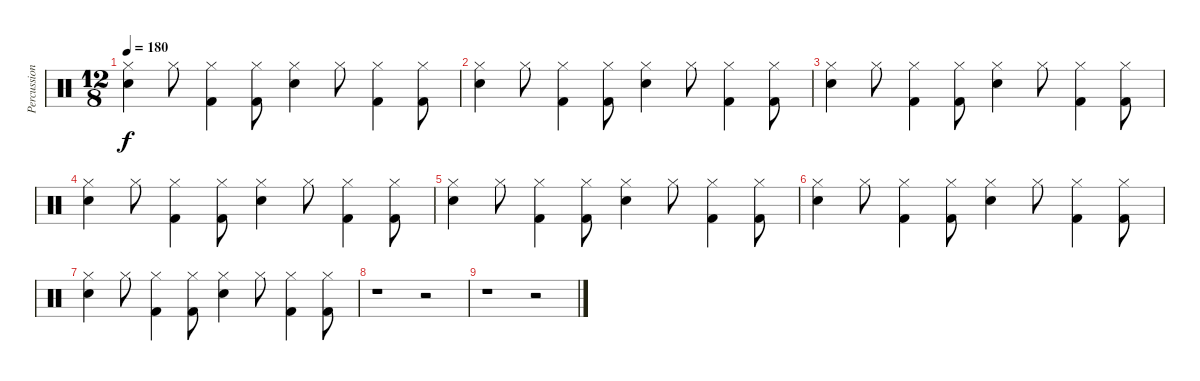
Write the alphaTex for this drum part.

\track ("Percussion" "Percussion") {instrument percussion}
\staff {score}
\articulation defaults
\ts (12 8)
\tempo 180
\clef neutral
\ks c
("Snare (hit) 2" "Hi-Hat (closed)").4{dy f} "Hi-Hat (closed)".8 ("Kick (hit) 2" "Hi-Hat (closed)").4 ("Kick (hit) 2" "Hi-Hat (closed)").8 ("Snare (hit) 2" "Hi-Hat (closed)").4 "Hi-Hat (closed)".8 ("Kick (hit) 2" "Hi-Hat (closed)").4 ("Kick (hit) 2" "Hi-Hat (closed)").8 |
("Snare (hit) 2" "Hi-Hat (closed)").4 "Hi-Hat (closed)".8 ("Kick (hit) 2" "Hi-Hat (closed)").4 ("Kick (hit) 2" "Hi-Hat (closed)").8 ("Snare (hit) 2" "Hi-Hat (closed)").4 "Hi-Hat (closed)".8 ("Kick (hit) 2" "Hi-Hat (closed)").4 ("Kick (hit) 2" "Hi-Hat (closed)").8 |
("Snare (hit) 2" "Hi-Hat (closed)").4 "Hi-Hat (closed)".8 ("Kick (hit) 2" "Hi-Hat (closed)").4 ("Kick (hit) 2" "Hi-Hat (closed)").8 ("Snare (hit) 2" "Hi-Hat (closed)").4 "Hi-Hat (closed)".8 ("Kick (hit) 2" "Hi-Hat (closed)").4 ("Kick (hit) 2" "Hi-Hat (closed)").8 |
("Snare (hit) 2" "Hi-Hat (closed)").4 "Hi-Hat (closed)".8 ("Kick (hit) 2" "Hi-Hat (closed)").4 ("Kick (hit) 2" "Hi-Hat (closed)").8 ("Snare (hit) 2" "Hi-Hat (closed)").4 "Hi-Hat (closed)".8 ("Kick (hit) 2" "Hi-Hat (closed)").4 ("Kick (hit) 2" "Hi-Hat (closed)").8 |
("Snare (hit) 2" "Hi-Hat (closed)").4 "Hi-Hat (closed)".8 ("Kick (hit) 2" "Hi-Hat (closed)").4 ("Kick (hit) 2" "Hi-Hat (closed)").8 ("Snare (hit) 2" "Hi-Hat (closed)").4 "Hi-Hat (closed)".8 ("Kick (hit) 2" "Hi-Hat (closed)").4 ("Kick (hit) 2" "Hi-Hat (closed)").8 |
("Snare (hit) 2" "Hi-Hat (closed)").4 "Hi-Hat (closed)".8 ("Kick (hit) 2" "Hi-Hat (closed)").4 ("Kick (hit) 2" "Hi-Hat (closed)").8 ("Snare (hit) 2" "Hi-Hat (closed)").4 "Hi-Hat (closed)".8 ("Kick (hit) 2" "Hi-Hat (closed)").4 ("Kick (hit) 2" "Hi-Hat (closed)").8 |
("Snare (hit) 2" "Hi-Hat (closed)").4 "Hi-Hat (closed)".8 ("Kick (hit) 2" "Hi-Hat (closed)").4 ("Kick (hit) 2" "Hi-Hat (closed)").8 ("Snare (hit) 2" "Hi-Hat (closed)").4 "Hi-Hat (closed)".8 ("Kick (hit) 2" "Hi-Hat (closed)").4 ("Kick (hit) 2" "Hi-Hat (closed)").8 |
r.1 r.2 |
r.1 r.2
